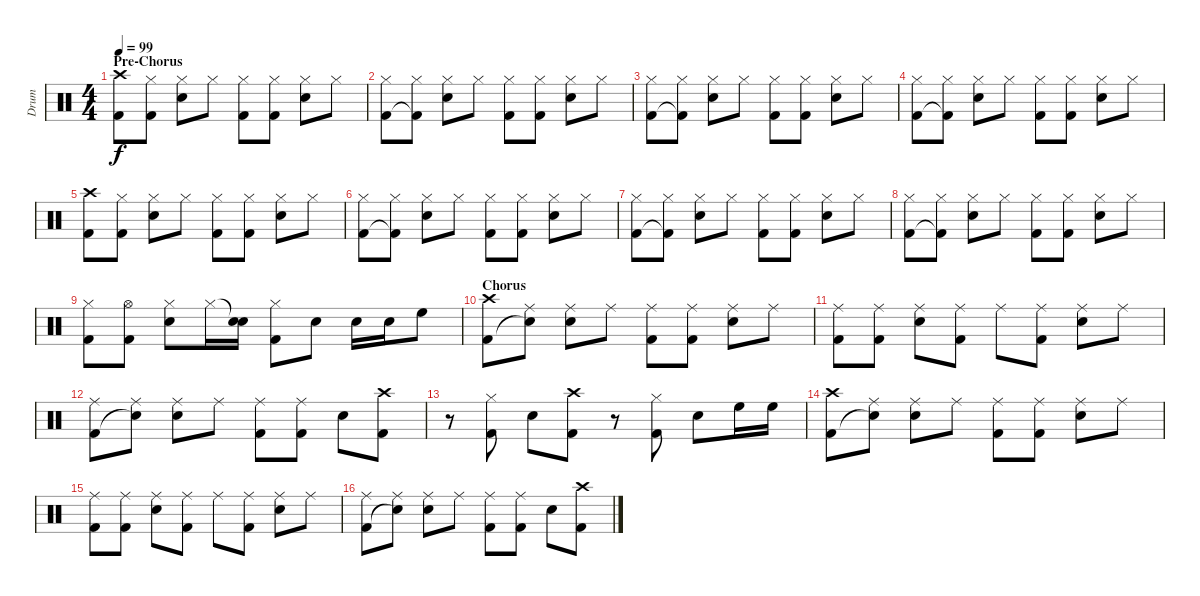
\track ("Drum" "Drum") {instrument percussion}
\staff {score}
\articulation defaults
\ts (4 4)
\section ("" "Pre-Chorus")
\tempo 99
\clef neutral
\ks c
("Crash high (hit)" "Kick (hit) 2").8{dy f} ("Hi-Hat (closed)" "Kick (hit) 2").8 ("Hi-Hat (closed)" "Snare (hit) 2").8 "Hi-Hat (closed)".8 ("Hi-Hat (closed)" "Kick (hit) 2").8 ("Hi-Hat (closed)" "Kick (hit) 2").8 ("Hi-Hat (closed)" "Snare (hit) 2").8 "Hi-Hat (closed)".8 |
("Hi-Hat (closed)" "Kick (hit) 2").8 ("Hi-Hat (closed)" "Kick (hit) 2"{t}).8 ("Hi-Hat (closed)" "Snare (hit) 2").8 "Hi-Hat (closed)".8 ("Hi-Hat (closed)" "Kick (hit) 2").8 ("Hi-Hat (closed)" "Kick (hit) 2").8 ("Hi-Hat (closed)" "Snare (hit) 2").8 "Hi-Hat (closed)".8 |
("Hi-Hat (closed)" "Kick (hit) 2").8 ("Hi-Hat (closed)" "Kick (hit) 2"{t}).8 ("Hi-Hat (closed)" "Snare (hit) 2").8 "Hi-Hat (closed)".8 ("Hi-Hat (closed)" "Kick (hit) 2").8 ("Hi-Hat (closed)" "Kick (hit) 2").8 ("Hi-Hat (closed)" "Snare (hit) 2").8 "Hi-Hat (closed)".8 |
("Hi-Hat (closed)" "Kick (hit) 2").8 ("Hi-Hat (closed)" "Kick (hit) 2"{t}).8 ("Hi-Hat (closed)" "Snare (hit) 2").8 "Hi-Hat (closed)".8 ("Hi-Hat (closed)" "Kick (hit) 2").8 ("Hi-Hat (closed)" "Kick (hit) 2").8 ("Hi-Hat (closed)" "Snare (hit) 2").8 "Hi-Hat (closed)".8 |
("Crash high (hit)" "Kick (hit) 2").8 ("Hi-Hat (closed)" "Kick (hit) 2").8 ("Hi-Hat (closed)" "Snare (hit) 2").8 "Hi-Hat (closed)".8 ("Hi-Hat (closed)" "Kick (hit) 2").8 ("Hi-Hat (closed)" "Kick (hit) 2").8 ("Hi-Hat (closed)" "Snare (hit) 2").8 "Hi-Hat (closed)".8 |
("Hi-Hat (closed)" "Kick (hit) 2").8 ("Hi-Hat (closed)" "Kick (hit) 2"{t}).8 ("Hi-Hat (closed)" "Snare (hit) 2").8 "Hi-Hat (closed)".8 ("Hi-Hat (closed)" "Kick (hit) 2").8 ("Hi-Hat (closed)" "Kick (hit) 2").8 ("Hi-Hat (closed)" "Snare (hit) 2").8 "Hi-Hat (closed)".8 |
("Hi-Hat (closed)" "Kick (hit) 2").8 ("Hi-Hat (closed)" "Kick (hit) 2"{t}).8 ("Hi-Hat (closed)" "Snare (hit) 2").8 "Hi-Hat (closed)".8 ("Hi-Hat (closed)" "Kick (hit) 2").8 ("Hi-Hat (closed)" "Kick (hit) 2").8 ("Hi-Hat (closed)" "Snare (hit) 2").8 "Hi-Hat (closed)".8 |
("Hi-Hat (closed)" "Kick (hit) 2").8 ("Hi-Hat (closed)" "Kick (hit) 2"{t}).8 ("Hi-Hat (closed)" "Snare (hit) 2").8 "Hi-Hat (closed)".8 ("Hi-Hat (closed)" "Kick (hit) 2").8 ("Hi-Hat (closed)" "Kick (hit) 2").8 ("Hi-Hat (closed)" "Snare (hit) 2").8 "Hi-Hat (closed)".8 |
("Hi-Hat (closed)" "Kick (hit) 2").8 ("Hi-Hat (open)" "Kick (hit) 2").8 ("Hi-Hat (closed)" "Snare (hit) 2").8 "Hi-Hat (closed)".16 ("Snare (hit)"{t} "Snare (hit) 2").16 ("Hi-Hat (closed)" "Kick (hit) 2").8 "Snare (hit) 2".8 "Snare (hit) 2".16 "Snare (hit) 2".16 "High Floor Tom (hit)".8 |
\section ("" "Chorus")
("Crash high (hit)" "Kick (hit) 2").8 ("Ride (middle)" "Snare (hit)"{t}).8 ("Ride (middle)" "Snare (hit) 2").8 "Ride (middle)".8 ("Ride (middle)" "Kick (hit) 2").8 ("Ride (middle)" "Kick (hit) 2").8 ("Ride (middle)" "Snare (hit) 2").8 "Ride (middle)".8 |
("Ride (middle)" "Kick (hit) 2").8 ("Ride (middle)" "Kick (hit) 2").8 ("Ride (middle)" "Snare (hit) 2").8 ("Ride (middle)" "Kick (hit) 2").8 "Ride (middle)".8 ("Ride (middle)" "Kick (hit) 2").8 ("Ride (middle)" "Snare (hit) 2").8 "Ride (middle)".8 |
("Ride (middle)" "Kick (hit) 2").8 ("Ride (middle)" "Snare (hit)"{t}).8 ("Ride (middle)" "Snare (hit) 2").8 "Ride (middle)".8 ("Ride (middle)" "Kick (hit) 2").8 ("Ride (middle)" "Kick (hit) 2").8 "Snare (hit) 2".8 ("Crash high (hit)" "Kick (hit) 2").8 |
r.8 ("Hi-Hat (closed)" "Kick (hit) 2").8 "Snare (hit) 2".8 ("Crash high (hit)" "Kick (hit) 2").8 r.8 ("Hi-Hat (closed)" "Kick (hit) 2").8 "Snare (hit) 2".8 "High Floor Tom (hit)".16 "High Floor Tom (hit)".16 |
("Crash high (hit)" "Kick (hit) 2").8 ("Ride (middle)" "Snare (hit)"{t}).8 ("Ride (middle)" "Snare (hit) 2").8 "Ride (middle)".8 ("Ride (middle)" "Kick (hit) 2").8 ("Ride (middle)" "Kick (hit) 2").8 ("Ride (middle)" "Snare (hit) 2").8 "Ride (middle)".8 |
("Ride (middle)" "Kick (hit) 2").8 ("Ride (middle)" "Kick (hit) 2").8 ("Ride (middle)" "Snare (hit) 2").8 ("Ride (middle)" "Kick (hit) 2").8 "Ride (middle)".8 ("Ride (middle)" "Kick (hit) 2").8 ("Ride (middle)" "Snare (hit) 2").8 "Ride (middle)".8 |
("Ride (middle)" "Kick (hit) 2").8 ("Ride (middle)" "Snare (hit)"{t}).8 ("Ride (middle)" "Snare (hit) 2").8 "Ride (middle)".8 ("Ride (middle)" "Kick (hit) 2").8 ("Ride (middle)" "Kick (hit) 2").8 "Snare (hit) 2".8 ("Crash high (hit)" "Kick (hit) 2").8
